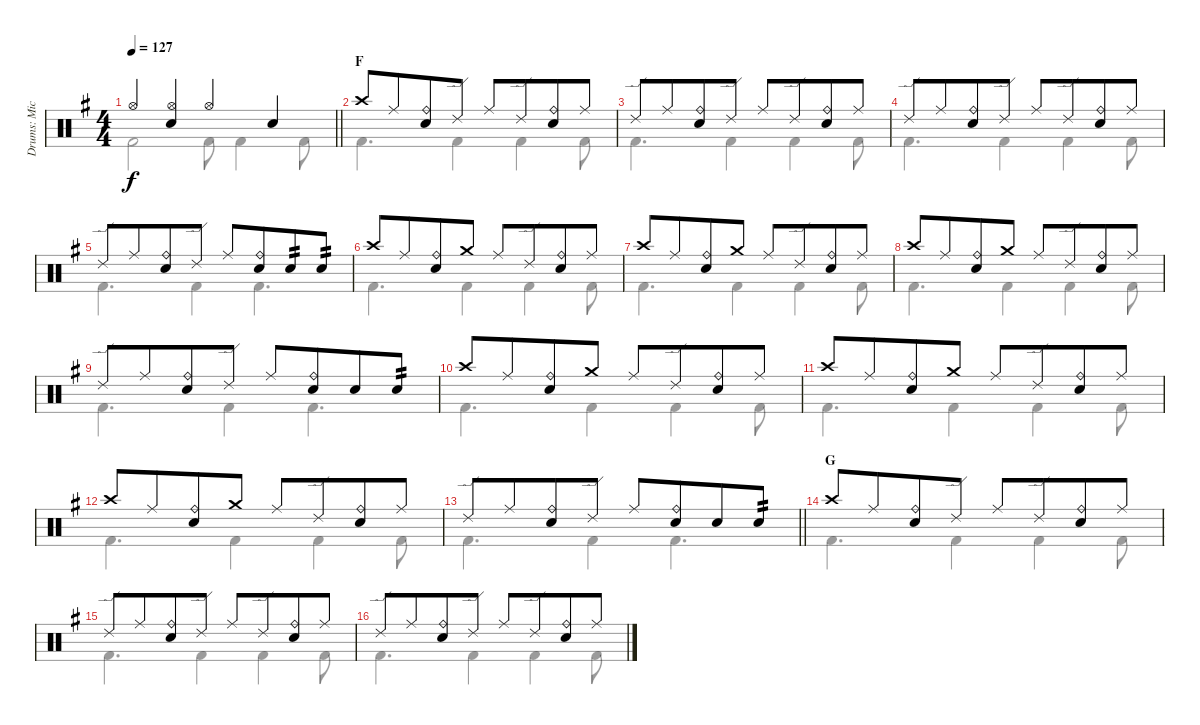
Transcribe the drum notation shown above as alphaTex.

\track ("Drums: Mick" "Drums: Mic") {instrument percussion}
\staff {score}
\articulation defaults
\voice
\ts (4 4)
\tempo 127
\clef neutral
\barLineRight lightlight
\ks g "Hi-Hat (open)".4{dy f}
("Hi-Hat (open)" "Electric Snare (hit)").4 "Hi-Hat (open)".4 "Electric Snare (hit)".4 |
\section ("" "F")
"Crash high (hit)".8 "Ride (middle)".8{beam merge} ("Ride (bell)" "Electric Snare (hit)").8 "Ride (edge) 2".8 "Ride (middle)".8 "Ride (edge) 2".8{beam merge} ("Ride (bell)" "Electric Snare (hit)").8 "Ride (middle)".8 |
"Ride (edge) 2".8 "Ride (middle)".8{beam merge} ("Ride (bell)" "Electric Snare (hit)").8 "Ride (edge) 2".8 "Ride (middle)".8 "Ride (edge) 2".8{beam merge} ("Ride (bell)" "Electric Snare (hit)").8 "Ride (middle)".8 |
"Ride (edge) 2".8 "Ride (middle)".8{beam merge} ("Ride (bell)" "Electric Snare (hit)").8 "Ride (edge) 2".8 "Ride (middle)".8 "Ride (edge) 2".8{beam merge} ("Ride (bell)" "Electric Snare (hit)").8 "Ride (middle)".8 |
"Ride (edge) 2".8 "Ride (middle)".8{beam merge} ("Ride (bell)" "Electric Snare (hit)").8 "Ride (edge) 2".8 "Ride (middle)".8{beam merge} ("Ride (bell)" "Electric Snare (hit)").8{beam merge} "Electric Snare (hit)".8{tp 2} "Electric Snare (hit)".8{tp 2} |
"Crash high (hit)".8 "Ride (middle)".8{beam merge} ("Ride (bell)" "Snare (hit) 2").8 "Crash medium (hit)".8 "Ride (middle)".8 "Ride (edge) 2".8{beam merge} ("Ride (bell)" "Electric Snare (hit)").8 "Ride (middle)".8 |
"Crash high (hit)".8 "Ride (middle)".8{beam merge} ("Ride (bell)" "Snare (hit) 2").8 "Crash medium (hit)".8 "Ride (middle)".8 "Ride (edge) 2".8{beam merge} ("Ride (bell)" "Electric Snare (hit)").8 "Ride (middle)".8 |
"Crash high (hit)".8 "Ride (middle)".8{beam merge} ("Ride (bell)" "Snare (hit) 2").8 "Crash medium (hit)".8 "Ride (middle)".8 "Ride (edge) 2".8{beam merge} ("Ride (bell)" "Electric Snare (hit)").8 "Ride (middle)".8 |
"Ride (edge) 2".8 "Ride (middle)".8{beam merge} ("Ride (bell)" "Electric Snare (hit)").8 "Ride (edge) 2".8 "Ride (middle)".8{beam merge} ("Ride (bell)" "Electric Snare (hit)").8{beam merge} "Electric Snare (hit)".8 "Electric Snare (hit)".8{tp 2} |
"Crash high (hit)".8 "Ride (middle)".8{beam merge} ("Ride (bell)" "Snare (hit) 2").8 "Crash medium (hit)".8 "Ride (middle)".8 "Ride (edge) 2".8{beam merge} ("Ride (bell)" "Electric Snare (hit)").8 "Ride (middle)".8 |
"Crash high (hit)".8 "Ride (middle)".8{beam merge} ("Ride (bell)" "Snare (hit) 2").8 "Crash medium (hit)".8 "Ride (middle)".8 "Ride (edge) 2".8{beam merge} ("Ride (bell)" "Electric Snare (hit)").8 "Ride (middle)".8 |
"Crash high (hit)".8 "Ride (middle)".8{beam merge} ("Ride (bell)" "Snare (hit) 2").8 "Crash medium (hit)".8 "Ride (middle)".8 "Ride (edge) 2".8{beam merge} ("Ride (bell)" "Electric Snare (hit)").8 "Ride (middle)".8 |
\barLineRight lightlight "Ride (edge) 2".8 "Ride (middle)".8{beam merge}
("Ride (bell)" "Electric Snare (hit)").8 "Ride (edge) 2".8 "Ride (middle)".8{beam merge} ("Ride (bell)" "Electric Snare (hit)").8{beam merge} "Electric Snare (hit)".8 "Electric Snare (hit)".8{tp 2} |
\section ("" "G")
"Crash high (hit)".8 "Ride (middle)".8{beam merge} ("Ride (bell)" "Electric Snare (hit)").8 "Ride (edge) 2".8 "Ride (middle)".8 "Ride (edge) 2".8{beam merge} ("Ride (bell)" "Electric Snare (hit)").8 "Ride (middle)".8 |
"Ride (edge) 2".8 "Ride (middle)".8{beam merge} ("Ride (bell)" "Electric Snare (hit)").8 "Ride (edge) 2".8 "Ride (middle)".8 "Ride (edge) 2".8{beam merge} ("Ride (bell)" "Electric Snare (hit)").8 "Ride (middle)".8 |
"Ride (edge) 2".8 "Ride (middle)".8{beam merge} ("Ride (bell)" "Electric Snare (hit)").8 "Ride (edge) 2".8 "Ride (middle)".8 "Ride (edge) 2".8{beam merge} ("Ride (bell)" "Electric Snare (hit)").8 "Ride (middle)".8
\voice
\clef neutral
\ottava regular
\simile none
\barLineRight lightlight
\ks g "Kick (hit) 2".2{dy f} "Kick (hit) 2".8 "Kick (hit) 2".4 "Kick (hit) 2".8
|
"Kick (hit) 2".4{d} "Kick (hit) 2".4 "Kick (hit) 2".4 "Kick (hit) 2".8 |
"Kick (hit) 2".4{d} "Kick (hit) 2".4 "Kick (hit) 2".4 "Kick (hit) 2".8 |
"Kick (hit) 2".4{d} "Kick (hit) 2".4 "Kick (hit) 2".4 "Kick (hit) 2".8 |
"Kick (hit) 2".4{d} "Kick (hit) 2".4 "Kick (hit) 2".4{d} |
"Kick (hit) 2".4{d} "Kick (hit) 2".4 "Kick (hit) 2".4 "Kick (hit) 2".8 |
"Kick (hit) 2".4{d} "Kick (hit) 2".4 "Kick (hit) 2".4 "Kick (hit) 2".8 |
"Kick (hit) 2".4{d} "Kick (hit) 2".4 "Kick (hit) 2".4 "Kick (hit) 2".8 |
"Kick (hit) 2".4{d} "Kick (hit) 2".4 "Kick (hit) 2".4{d} |
"Kick (hit) 2".4{d} "Kick (hit) 2".4 "Kick (hit) 2".4 "Kick (hit) 2".8 |
"Kick (hit) 2".4{d} "Kick (hit) 2".4 "Kick (hit) 2".4 "Kick (hit) 2".8 |
"Kick (hit) 2".4{d} "Kick (hit) 2".4 "Kick (hit) 2".4 "Kick (hit) 2".8 |
\barLineRight lightlight "Kick (hit) 2".4{d} "Kick (hit) 2".4 "Kick (hit) 2".4{d}
|
"Kick (hit) 2".4{d} "Kick (hit) 2".4 "Kick (hit) 2".4 "Kick (hit) 2".8 |
"Kick (hit) 2".4{d} "Kick (hit) 2".4 "Kick (hit) 2".4 "Kick (hit) 2".8 |
"Kick (hit) 2".4{d} "Kick (hit) 2".4 "Kick (hit) 2".4 "Kick (hit) 2".8
